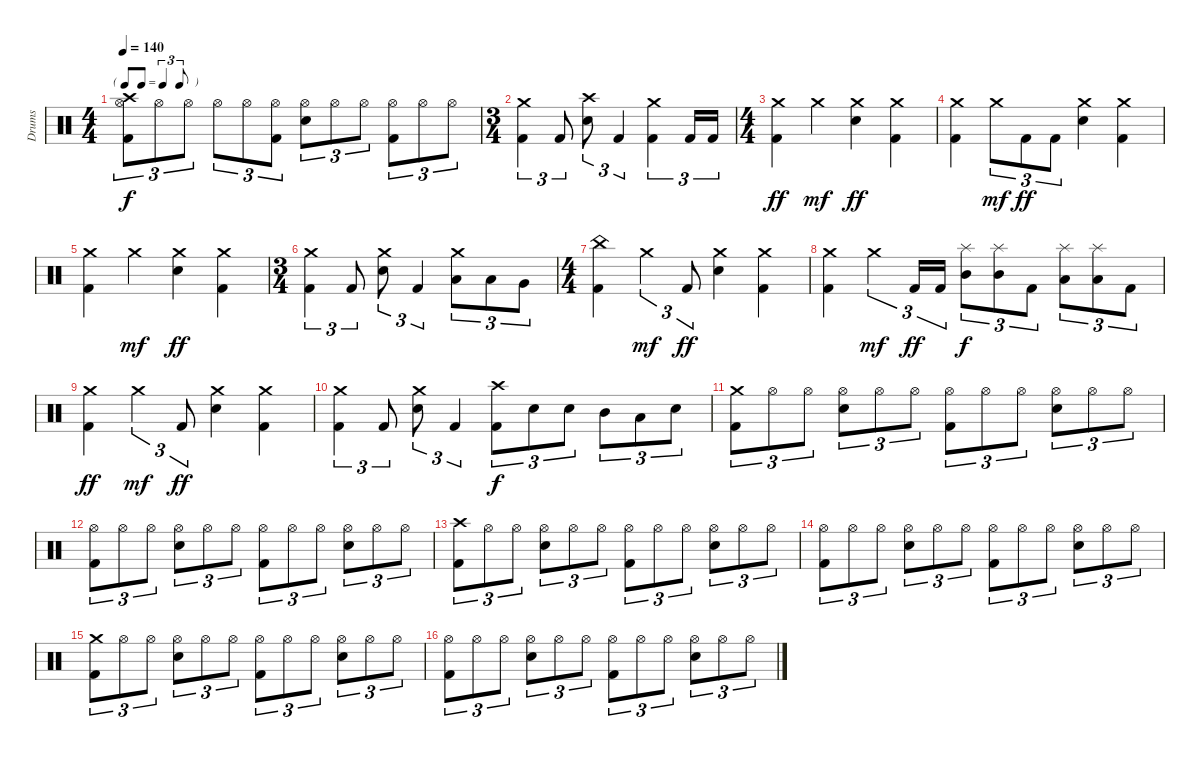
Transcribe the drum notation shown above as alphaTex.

\track ("Drums" "Drums") {instrument percussion}
\staff {score}
\articulation defaults
\ts (4 4)
\tf triplet8th
\tempo 140
\clef neutral
\ks c
("Crash high (hit)" "Hi-Hat (open)" "Kick (hit) 2").8{tu (3 2) dy f} "Hi-Hat (open)".8{tu (3 2)} "Hi-Hat (open)".8{tu (3 2)} "Hi-Hat (open)".8{tu (3 2)} "Hi-Hat (open)".8{tu (3 2)} ("Hi-Hat (open)" "Kick (hit) 2").8{tu (3 2)} ("Hi-Hat (open)" "Electric Snare (hit)").8{tu (3 2)} "Hi-Hat (open)".8{tu (3 2)} "Hi-Hat (open)".8{tu (3 2)} ("Hi-Hat (open)" "Kick (hit) 2").8{tu (3 2)} "Hi-Hat (open)".8{tu (3 2)} "Hi-Hat (open)".8{tu (3 2)} |
\ts (3 4)
("Crash medium (hit)" "Kick (hit) 2").4{tu (3 2)} "Kick (hit) 2".8{tu (3 2)} ("Crash high (hit)" "Electric Snare (hit)").8{tu (3 2)} "Kick (hit) 2".4{tu (3 2)} ("Crash medium (hit)" "Kick (hit) 2").4{tu (3 2)} "Kick (hit) 2".16{tu (3 2)} "Kick (hit) 2".16{tu (3 2)} |
\ts (4 4)
("Crash medium (hit)" "Kick (hit) 2").4{dy ff} "Crash medium (hit)".4{dy mf} ("Crash medium (hit)" "Electric Snare (hit)").4{dy ff} ("Crash medium (hit)" "Kick (hit) 2").4 |
("Crash medium (hit)" "Kick (hit) 2").4 "Crash medium (hit)".8{tu (3 2) dy mf} "Kick (hit) 2".8{tu (3 2) dy ff} "Kick (hit) 2".8{tu (3 2)} ("Crash medium (hit)" "Electric Snare (hit)").4 ("Crash medium (hit)" "Kick (hit) 2").4 |
("Crash medium (hit)" "Kick (hit) 2").4 "Crash medium (hit)".4{dy mf} ("Crash medium (hit)" "Electric Snare (hit)").4{dy ff} ("Crash medium (hit)" "Kick (hit) 2").4 |
\ts (3 4)
("Crash medium (hit)" "Kick (hit) 2").4{tu (3 2)} "Kick (hit) 2".8{tu (3 2)} ("Crash medium (hit)" "Electric Snare (hit)").8{tu (3 2)} "Kick (hit) 2".4{tu (3 2)} ("Crash medium (hit)" "Low Tom (hit)").8{tu (3 2)} "Low Tom (hit)".8{tu (3 2)} "Very Low Tom (hit)".8{tu (3 2)} |
\ts (4 4)
("China (hit)" "Kick (hit) 2").4 "Crash medium (hit)".4{tu (3 2) dy mf} "Kick (hit) 2".8{tu (3 2) dy ff} ("Crash medium (hit)" "Electric Snare (hit)").4 ("Crash medium (hit)" "Kick (hit) 2").4 |
("Crash medium (hit)" "Kick (hit) 2").4 "Crash medium (hit)".4{tu (3 2) dy mf} "Kick (hit) 2".16{tu (3 2) dy ff} "Kick (hit) 2".16{tu (3 2)} ("Splash (hit)" "Mid Tom (hit)").8{tu (3 2) dy f} ("Splash (hit)" "Mid Tom (hit)").8{tu (3 2)} "Kick (hit) 2".8{tu (3 2)} ("Splash (hit)" "Low Tom (hit)").8{tu (3 2)} ("Splash (hit)" "Low Tom (hit)").8{tu (3 2)} "Kick (hit) 2".8{tu (3 2)} |
("Crash medium (hit)" "Kick (hit) 2").4{dy ff} "Crash medium (hit)".4{tu (3 2) dy mf} "Kick (hit) 2".8{tu (3 2) dy ff} ("Crash medium (hit)" "Electric Snare (hit)").4 ("Crash medium (hit)" "Kick (hit) 2").4 |
("Crash medium (hit)" "Kick (hit) 2").4{tu (3 2)} "Kick (hit) 2".8{tu (3 2)} ("Crash medium (hit)" "Electric Snare (hit)").8{tu (3 2)} "Kick (hit) 2".4{tu (3 2)} ("Crash high (hit)" "Kick (hit) 2").8{tu (3 2) dy f} "Electric Snare (hit)".8{tu (3 2)} "Electric Snare (hit)".8{tu (3 2)} "Mid Tom (hit)".8{tu (3 2)} "Low Tom (hit)".8{tu (3 2)} "Electric Snare (hit)".8{tu (3 2)} |
("Crash medium (hit)" "Kick (hit) 2").8{tu (3 2)} "Hi-Hat (open)".8{tu (3 2)} "Hi-Hat (open)".8{tu (3 2)} ("Hi-Hat (open)" "Electric Snare (hit)").8{tu (3 2)} "Hi-Hat (open)".8{tu (3 2)} "Hi-Hat (open)".8{tu (3 2)} ("Hi-Hat (open)" "Kick (hit) 2").8{tu (3 2)} "Hi-Hat (open)".8{tu (3 2)} "Hi-Hat (open)".8{tu (3 2)} ("Hi-Hat (open)" "Electric Snare (hit)").8{tu (3 2)} "Hi-Hat (open)".8{tu (3 2)} "Hi-Hat (open)".8{tu (3 2)} |
("Hi-Hat (open)" "Kick (hit) 2").8{tu (3 2)} "Hi-Hat (open)".8{tu (3 2)} "Hi-Hat (open)".8{tu (3 2)} ("Hi-Hat (open)" "Electric Snare (hit)").8{tu (3 2)} "Hi-Hat (open)".8{tu (3 2)} "Hi-Hat (open)".8{tu (3 2)} ("Hi-Hat (open)" "Kick (hit) 2").8{tu (3 2)} "Hi-Hat (open)".8{tu (3 2)} "Hi-Hat (open)".8{tu (3 2)} ("Hi-Hat (open)" "Electric Snare (hit)").8{tu (3 2)} "Hi-Hat (open)".8{tu (3 2)} "Hi-Hat (open)".8{tu (3 2)} |
("Crash high (hit)" "Kick (hit) 2").8{tu (3 2)} "Hi-Hat (open)".8{tu (3 2)} "Hi-Hat (open)".8{tu (3 2)} ("Hi-Hat (open)" "Electric Snare (hit)").8{tu (3 2)} "Hi-Hat (open)".8{tu (3 2)} "Hi-Hat (open)".8{tu (3 2)} ("Hi-Hat (open)" "Kick (hit) 2").8{tu (3 2)} "Hi-Hat (open)".8{tu (3 2)} "Hi-Hat (open)".8{tu (3 2)} ("Hi-Hat (open)" "Electric Snare (hit)").8{tu (3 2)} "Hi-Hat (open)".8{tu (3 2)} "Hi-Hat (open)".8{tu (3 2)} |
("Hi-Hat (open)" "Kick (hit) 2").8{tu (3 2)} "Hi-Hat (open)".8{tu (3 2)} "Hi-Hat (open)".8{tu (3 2)} ("Hi-Hat (open)" "Electric Snare (hit)").8{tu (3 2)} "Hi-Hat (open)".8{tu (3 2)} "Hi-Hat (open)".8{tu (3 2)} ("Hi-Hat (open)" "Kick (hit) 2").8{tu (3 2)} "Hi-Hat (open)".8{tu (3 2)} "Hi-Hat (open)".8{tu (3 2)} ("Hi-Hat (open)" "Electric Snare (hit)").8{tu (3 2)} "Hi-Hat (open)".8{tu (3 2)} "Hi-Hat (open)".8{tu (3 2)} |
("Crash medium (hit)" "Kick (hit) 2").8{tu (3 2)} "Hi-Hat (open)".8{tu (3 2)} "Hi-Hat (open)".8{tu (3 2)} ("Hi-Hat (open)" "Electric Snare (hit)").8{tu (3 2)} "Hi-Hat (open)".8{tu (3 2)} "Hi-Hat (open)".8{tu (3 2)} ("Hi-Hat (open)" "Kick (hit) 2").8{tu (3 2)} "Hi-Hat (open)".8{tu (3 2)} "Hi-Hat (open)".8{tu (3 2)} ("Hi-Hat (open)" "Electric Snare (hit)").8{tu (3 2)} "Hi-Hat (open)".8{tu (3 2)} "Hi-Hat (open)".8{tu (3 2)} |
("Hi-Hat (open)" "Kick (hit) 2").8{tu (3 2)} "Hi-Hat (open)".8{tu (3 2)} "Hi-Hat (open)".8{tu (3 2)} ("Hi-Hat (open)" "Electric Snare (hit)").8{tu (3 2)} "Hi-Hat (open)".8{tu (3 2)} "Hi-Hat (open)".8{tu (3 2)} ("Hi-Hat (open)" "Kick (hit) 2").8{tu (3 2)} "Hi-Hat (open)".8{tu (3 2)} "Hi-Hat (open)".8{tu (3 2)} ("Hi-Hat (open)" "Electric Snare (hit)").8{tu (3 2)} "Hi-Hat (open)".8{tu (3 2)} "Hi-Hat (open)".8{tu (3 2)}
